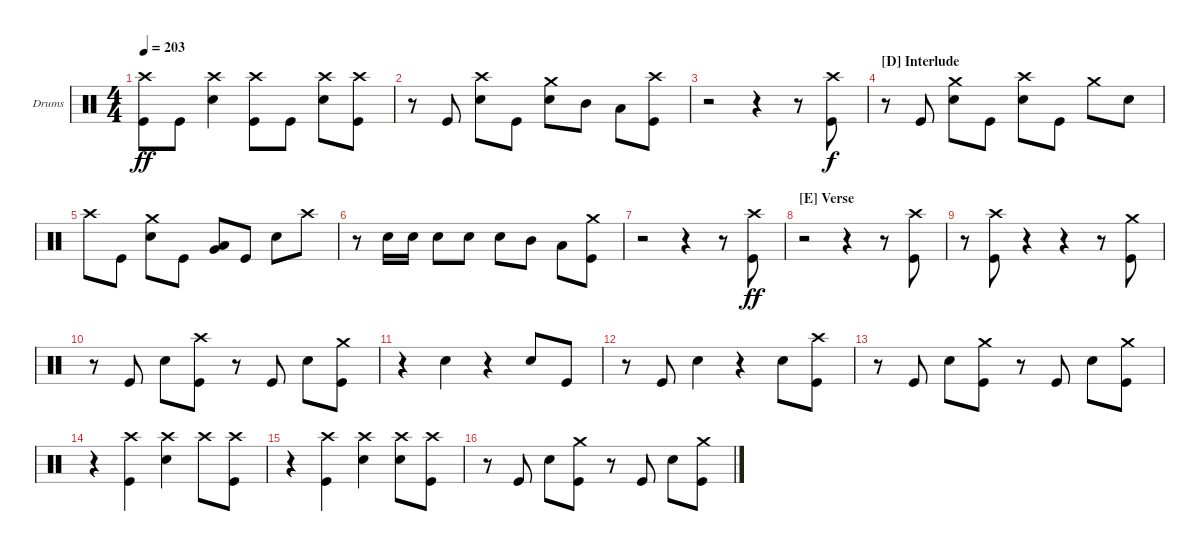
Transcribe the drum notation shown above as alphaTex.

\defaultSystemsLayout 4
\bracketExtendMode groupsimilarinstruments
\firstSystemTrackNameOrientation horizontal
\otherSystemsTrackNameOrientation horizontal
\track ("Brandon Barnes - Drums" "Drums") {instrument percussion}
\staff {score}
\articulation defaults
\ts (4 4)
\tempo 203
\clef neutral
\ks c
("Kick (hit)" "Crash high (hit)").8{dy ff} "Kick (hit)".8 ("Snare (hit) 2" "Crash high (hit)").4 ("Kick (hit)" "Crash high (hit)").8 "Kick (hit)".8 ("Snare (hit) 2" "Crash high (hit)").8 ("Kick (hit)" "Crash high (hit)").8 |
r.8 "Kick (hit)".8 ("Snare (hit) 2" "Crash high (hit)").8 "Kick (hit)".8 ("Snare (hit) 2" "Crash medium (hit)").8 "Mid Tom (hit)".8 "Low Tom (hit)".8 ("Kick (hit)" "Crash high (hit)").8 |
r.2 r.4 r.8 ("Crash high (hit)" "Kick (hit)").8{dy f} |
\section ("D" "Interlude")
r.8 "Kick (hit)".8 ("Snare (hit) 2" "Crash medium (hit)").8 "Kick (hit)".8 ("Snare (hit) 2" "Crash high (hit)").8 "Kick (hit)".8 "Crash medium (hit)".8 "Snare (hit) 2".8 |
"Crash high (hit)".8 "Kick (hit)".8 ("Snare (hit) 2" "Crash medium (hit)").8 "Kick (hit)".8 ("Very Low Tom (hit)" "Low Tom (hit)").8 "Kick (hit)".8 "Snare (hit) 2".8 "Crash high (hit)".8 |
r.8 "Snare (hit) 2".16 "Snare (hit) 2".16 "Snare (hit) 2".8 "Snare (hit) 2".8 "Snare (hit) 2".8 "Mid Tom (hit)".8 "Low Tom (hit)".8 ("Kick (hit)" "Crash medium (hit)").8 |
r.2 r.4 r.8 ("Kick (hit)" "Crash high (hit)").8{dy ff} |
\section ("E" "Verse")
r.2 r.4 r.8 ("Kick (hit)" "Crash high (hit)").8 |
r.8 ("Kick (hit)" "Crash high (hit)").8 r.4 r.4 r.8 ("Kick (hit)" "Crash medium (hit)").8 |
r.8 "Kick (hit)".8 "Snare (hit) 2".8 ("Kick (hit)" "Crash high (hit)").8 r.8 "Kick (hit)".8 "Snare (hit) 2".8 ("Kick (hit)" "Crash medium (hit)").8 |
r.4 "Snare (hit) 2".4 r.4 "Snare (hit) 2".8 "Kick (hit)".8 |
r.8 "Kick (hit)".8 "Snare (hit) 2".4 r.4 "Snare (hit) 2".8 ("Kick (hit)" "Crash high (hit)").8 |
r.8 "Kick (hit)".8 "Snare (hit) 2".8 ("Kick (hit)" "Crash medium (hit)").8 r.8 "Kick (hit)".8 "Snare (hit) 2".8 ("Kick (hit)" "Crash medium (hit)").8 |
r.4 ("Kick (hit)" "Crash high (hit)").4 ("Snare (hit) 2" "Crash high (hit)").4 "Crash high (hit)".8 ("Kick (hit)" "Crash high (hit)").8 |
r.4 ("Kick (hit)" "Crash high (hit)").4 ("Snare (hit) 2" "Crash high (hit)").4 ("Snare (hit) 2" "Crash high (hit)").8 ("Kick (hit)" "Crash high (hit)").8 |
r.8 "Kick (hit)".8 "Snare (hit) 2".8 ("Kick (hit)" "Crash medium (hit)").8 r.8 "Kick (hit)".8 "Snare (hit) 2".8 ("Kick (hit)" "Crash medium (hit)").8
